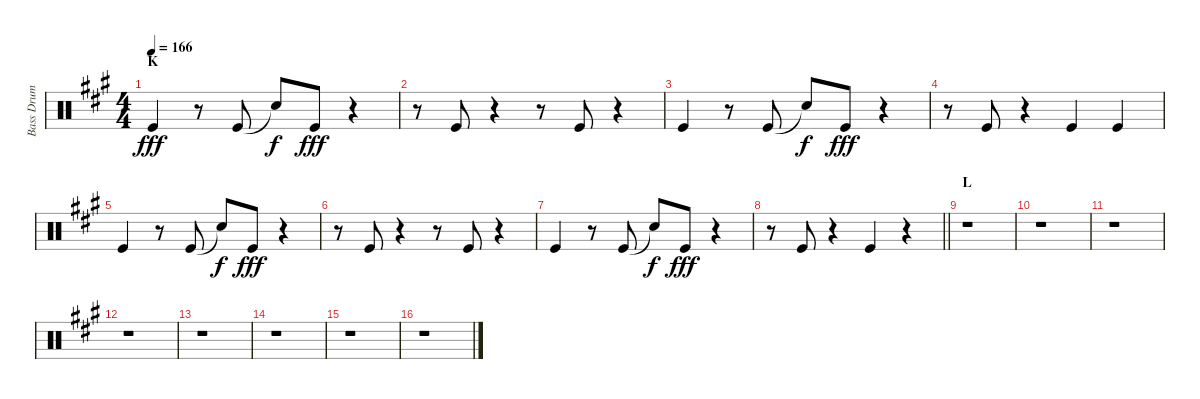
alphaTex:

\track ("Bass Drum" "Bass Drum") {instrument percussion}
\staff {score}
\articulation defaults
\ts (4 4)
\section ("" "K")
\tempo 166
\clef neutral
\ks a "Kick (hit)".4{dy fff}
r.8 "Kick (hit)".8 "Snare (hit)"{t}.8{dy f} "Kick (hit)".8{dy fff} r.4 |
r.8 "Kick (hit)".8 r.4 r.8 "Kick (hit)".8 r.4 |
"Kick (hit)".4 r.8 "Kick (hit)".8 "Snare (hit)"{t}.8{dy f} "Kick (hit)".8{dy fff} r.4 |
r.8 "Kick (hit)".8 r.4 "Kick (hit)".4 "Kick (hit)".4 |
"Kick (hit)".4 r.8 "Kick (hit)".8 "Snare (hit)"{t}.8{dy f} "Kick (hit)".8{dy fff} r.4 |
r.8 "Kick (hit)".8 r.4 r.8 "Kick (hit)".8 r.4 |
"Kick (hit)".4 r.8 "Kick (hit)".8 "Snare (hit)"{t}.8{dy f} "Kick (hit)".8{dy fff} r.4 |
\barLineRight lightlight
r.8 "Kick (hit)".8 r.4 "Kick (hit)".4 r.4 |
\section ("" "L")
r.1 |
r.1 |
r.1 |
r.1 |
r.1 |
r.1 |
r.1 |
r.1
